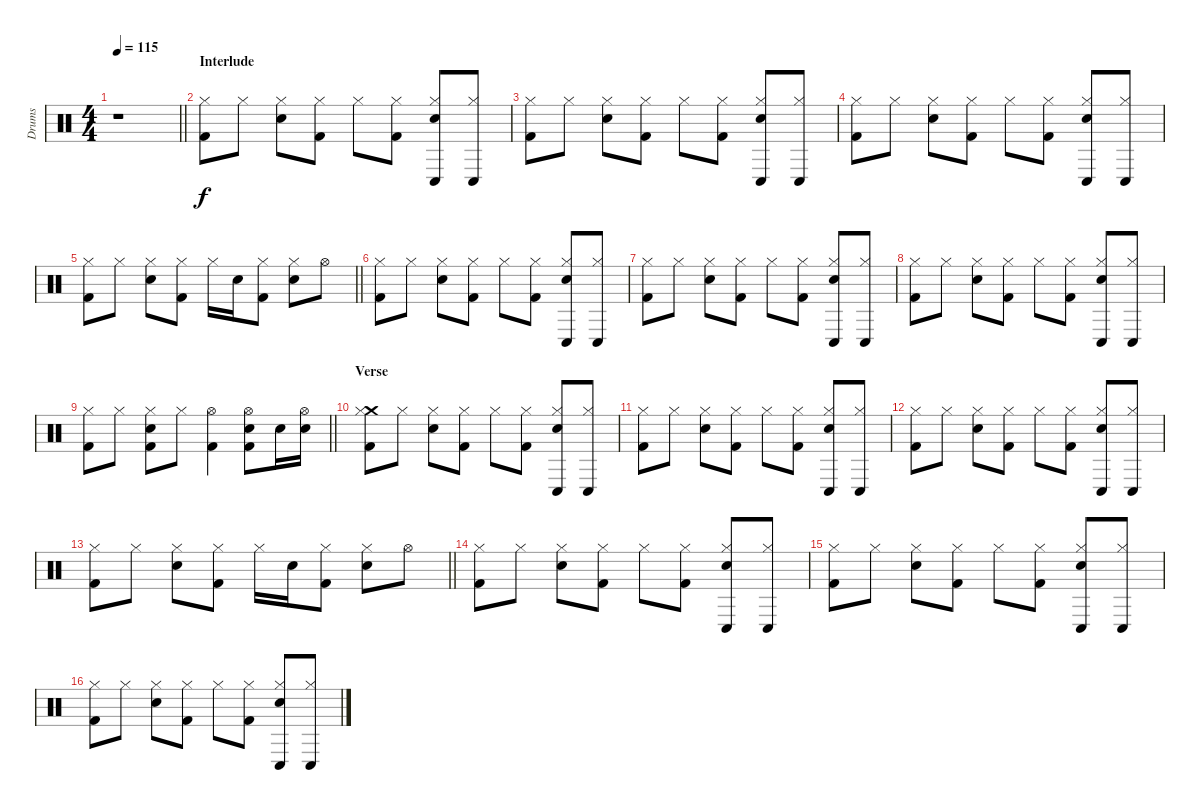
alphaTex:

\track ("Drums" "Drums") {instrument percussion}
\staff {score}
\articulation defaults
\ts (4 4)
\tempo 115
\clef neutral
\barLineRight lightlight
\ks c
r.1{dy f} |
\section ("" "Interlude")
("Kick (hit) 2" "Hi-Hat (closed)").8 "Hi-Hat (closed)".8 ("Electric Snare (hit)" "Hi-Hat (closed)").8 ("Kick (hit) 2" "Hi-Hat (closed)").8 "Hi-Hat (closed)".8 ("Kick (hit) 2" "Hi-Hat (closed)").8 ("Conga low (hit)" "Electric Snare (hit)" "Hi-Hat (closed)").8 ("Conga low (hit)" "Hi-Hat (closed)").8 |
("Kick (hit) 2" "Hi-Hat (closed)").8 "Hi-Hat (closed)".8 ("Electric Snare (hit)" "Hi-Hat (closed)").8 ("Kick (hit) 2" "Hi-Hat (closed)").8 "Hi-Hat (closed)".8 ("Kick (hit) 2" "Hi-Hat (closed)").8 ("Conga low (hit)" "Electric Snare (hit)" "Hi-Hat (closed)").8 ("Conga low (hit)" "Hi-Hat (closed)").8 |
("Kick (hit) 2" "Hi-Hat (closed)").8 "Hi-Hat (closed)".8 ("Electric Snare (hit)" "Hi-Hat (closed)").8 ("Kick (hit) 2" "Hi-Hat (closed)").8 "Hi-Hat (closed)".8 ("Kick (hit) 2" "Hi-Hat (closed)").8 ("Conga low (hit)" "Electric Snare (hit)" "Hi-Hat (closed)").8 ("Conga low (hit)" "Hi-Hat (closed)").8 |
\barLineRight lightlight
("Kick (hit) 2" "Hi-Hat (closed)").8 "Hi-Hat (closed)".8 ("Electric Snare (hit)" "Hi-Hat (closed)").8 ("Kick (hit) 2" "Hi-Hat (closed)").8 "Hi-Hat (closed)".16 "Electric Snare (hit)".16 ("Kick (hit) 2" "Hi-Hat (closed)").8 ("Electric Snare (hit)" "Hi-Hat (closed)").8 "Hi-Hat (open)".8 |
("Kick (hit) 2" "Hi-Hat (closed)").8 "Hi-Hat (closed)".8 ("Electric Snare (hit)" "Hi-Hat (closed)").8 ("Kick (hit) 2" "Hi-Hat (closed)").8 "Hi-Hat (closed)".8 ("Kick (hit) 2" "Hi-Hat (closed)").8 ("Conga low (hit)" "Electric Snare (hit)" "Hi-Hat (closed)").8 ("Conga low (hit)" "Hi-Hat (closed)").8 |
("Kick (hit) 2" "Hi-Hat (closed)").8 "Hi-Hat (closed)".8 ("Electric Snare (hit)" "Hi-Hat (closed)").8 ("Kick (hit) 2" "Hi-Hat (closed)").8 "Hi-Hat (closed)".8 ("Kick (hit) 2" "Hi-Hat (closed)").8 ("Conga low (hit)" "Electric Snare (hit)" "Hi-Hat (closed)").8 ("Conga low (hit)" "Hi-Hat (closed)").8 |
("Kick (hit) 2" "Hi-Hat (closed)").8 "Hi-Hat (closed)".8 ("Electric Snare (hit)" "Hi-Hat (closed)").8 ("Kick (hit) 2" "Hi-Hat (closed)").8 "Hi-Hat (closed)".8 ("Kick (hit) 2" "Hi-Hat (closed)").8 ("Conga low (hit)" "Electric Snare (hit)" "Hi-Hat (closed)").8 ("Conga low (hit)" "Hi-Hat (closed)").8 |
\barLineRight lightlight
("Kick (hit) 2" "Hi-Hat (closed)").8 "Hi-Hat (closed)".8 ("Kick (hit) 2" "Electric Snare (hit)" "Hi-Hat (closed)").8 "Hi-Hat (closed)".8 ("Kick (hit) 2" "Hi-Hat (open)").4 ("Kick (hit) 2" "Electric Snare (hit)" "Hi-Hat (open)").8 "Electric Snare (hit)".16 ("Electric Snare (hit)" "Hi-Hat (open)").16 |
\section ("" "Verse")
("Crash medium (hit)" "Kick (hit) 2" "Hi-Hat (closed)").8 "Hi-Hat (closed)".8 ("Electric Snare (hit)" "Hi-Hat (closed)").8 ("Kick (hit) 2" "Hi-Hat (closed)").8 "Hi-Hat (closed)".8 ("Kick (hit) 2" "Hi-Hat (closed)").8 ("Conga low (hit)" "Electric Snare (hit)" "Hi-Hat (closed)").8 ("Conga low (hit)" "Hi-Hat (closed)").8 |
("Kick (hit) 2" "Hi-Hat (closed)").8 "Hi-Hat (closed)".8 ("Electric Snare (hit)" "Hi-Hat (closed)").8 ("Kick (hit) 2" "Hi-Hat (closed)").8 "Hi-Hat (closed)".8 ("Kick (hit) 2" "Hi-Hat (closed)").8 ("Conga low (hit)" "Electric Snare (hit)" "Hi-Hat (closed)").8 ("Conga low (hit)" "Hi-Hat (closed)").8 |
("Kick (hit) 2" "Hi-Hat (closed)").8 "Hi-Hat (closed)".8 ("Electric Snare (hit)" "Hi-Hat (closed)").8 ("Kick (hit) 2" "Hi-Hat (closed)").8 "Hi-Hat (closed)".8 ("Kick (hit) 2" "Hi-Hat (closed)").8 ("Conga low (hit)" "Electric Snare (hit)" "Hi-Hat (closed)").8 ("Conga low (hit)" "Hi-Hat (closed)").8 |
\barLineRight lightlight
("Kick (hit) 2" "Hi-Hat (closed)").8 "Hi-Hat (closed)".8 ("Electric Snare (hit)" "Hi-Hat (closed)").8 ("Kick (hit) 2" "Hi-Hat (closed)").8 "Hi-Hat (closed)".16 "Electric Snare (hit)".16 ("Kick (hit) 2" "Hi-Hat (closed)").8 ("Electric Snare (hit)" "Hi-Hat (closed)").8 "Hi-Hat (open)".8 |
("Kick (hit) 2" "Hi-Hat (closed)").8 "Hi-Hat (closed)".8 ("Electric Snare (hit)" "Hi-Hat (closed)").8 ("Kick (hit) 2" "Hi-Hat (closed)").8 "Hi-Hat (closed)".8 ("Kick (hit) 2" "Hi-Hat (closed)").8 ("Conga low (hit)" "Electric Snare (hit)" "Hi-Hat (closed)").8 ("Conga low (hit)" "Hi-Hat (closed)").8 |
("Kick (hit) 2" "Hi-Hat (closed)").8 "Hi-Hat (closed)".8 ("Electric Snare (hit)" "Hi-Hat (closed)").8 ("Kick (hit) 2" "Hi-Hat (closed)").8 "Hi-Hat (closed)".8 ("Kick (hit) 2" "Hi-Hat (closed)").8 ("Conga low (hit)" "Electric Snare (hit)" "Hi-Hat (closed)").8 ("Conga low (hit)" "Hi-Hat (closed)").8 |
("Kick (hit) 2" "Hi-Hat (closed)").8 "Hi-Hat (closed)".8 ("Electric Snare (hit)" "Hi-Hat (closed)").8 ("Kick (hit) 2" "Hi-Hat (closed)").8 "Hi-Hat (closed)".8 ("Kick (hit) 2" "Hi-Hat (closed)").8 ("Conga low (hit)" "Electric Snare (hit)" "Hi-Hat (closed)").8 ("Conga low (hit)" "Hi-Hat (closed)").8
